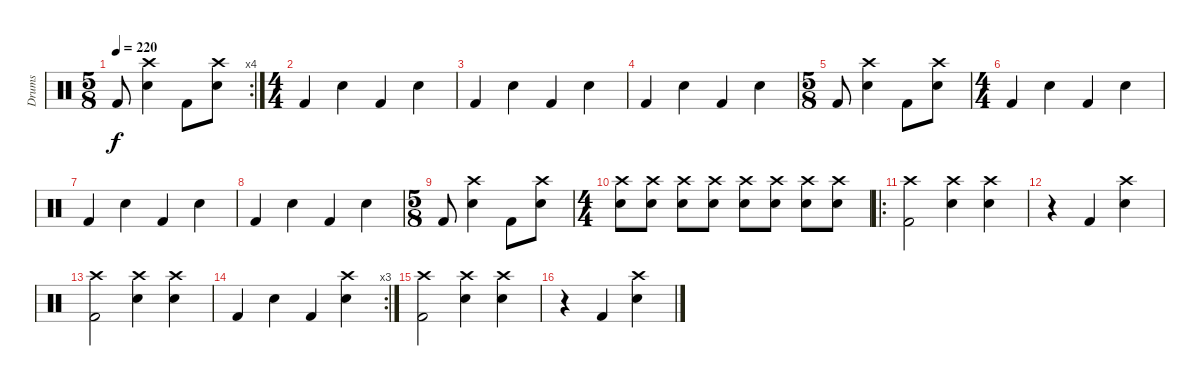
\track ("Drums" "Drums") {instrument percussion}
\staff {score}
\articulation defaults
\rc 4
\ts (5 8)
\tempo 220
\clef neutral
\ks c "Kick (hit) 2".8{dy f}
("Electric Snare (hit)" "Crash high (hit)").4 "Kick (hit) 2".8 ("Crash high (hit)" "Electric Snare (hit)").8 |
\ts (4 4)
"Kick (hit) 2".4 "Electric Snare (hit)".4 "Kick (hit) 2".4 "Electric Snare (hit)".4 |
"Kick (hit) 2".4 "Electric Snare (hit)".4 "Kick (hit) 2".4 "Electric Snare (hit)".4 |
"Kick (hit) 2".4 "Electric Snare (hit)".4 "Kick (hit) 2".4 "Electric Snare (hit)".4 |
\ts (5 8)
"Kick (hit) 2".8 ("Electric Snare (hit)" "Crash high (hit)").4 "Kick (hit) 2".8 ("Crash high (hit)" "Electric Snare (hit)").8 |
\ts (4 4)
"Kick (hit) 2".4 "Electric Snare (hit)".4 "Kick (hit) 2".4 "Electric Snare (hit)".4 |
"Kick (hit) 2".4 "Electric Snare (hit)".4 "Kick (hit) 2".4 "Electric Snare (hit)".4 |
"Kick (hit) 2".4 "Electric Snare (hit)".4 "Kick (hit) 2".4 "Electric Snare (hit)".4 |
\ts (5 8)
"Kick (hit) 2".8 ("Electric Snare (hit)" "Crash high (hit)").4 "Kick (hit) 2".8 ("Crash high (hit)" "Electric Snare (hit)").8 |
\ts (4 4)
("Crash high (hit)" "Electric Snare (hit)").8 ("Electric Snare (hit)" "Crash high (hit)").8 ("Crash high (hit)" "Electric Snare (hit)").8 ("Crash high (hit)" "Electric Snare (hit)").8 ("Crash high (hit)" "Electric Snare (hit)").8 ("Crash high (hit)" "Electric Snare (hit)").8 ("Crash high (hit)" "Electric Snare (hit)").8 ("Electric Snare (hit)" "Crash high (hit)").8 |
\ro
("Crash high (hit)" "Kick (hit) 2").2 ("Crash high (hit)" "Electric Snare (hit)").4 ("Crash high (hit)" "Electric Snare (hit)").4 |
r.4 "Kick (hit) 2".4 ("Crash high (hit)" "Electric Snare (hit)").4 |
("Crash high (hit)" "Kick (hit) 2").2 ("Crash high (hit)" "Electric Snare (hit)").4 ("Crash high (hit)" "Electric Snare (hit)").4 |
\rc 3 "Kick (hit) 2".4 "Electric Snare (hit)".4 "Kick (hit) 2".4
("Crash high (hit)" "Electric Snare (hit)").4 |
("Crash high (hit)" "Kick (hit) 2").2 ("Crash high (hit)" "Electric Snare (hit)").4 ("Crash high (hit)" "Electric Snare (hit)").4 |
r.4 "Kick (hit) 2".4 ("Crash high (hit)" "Electric Snare (hit)").4
